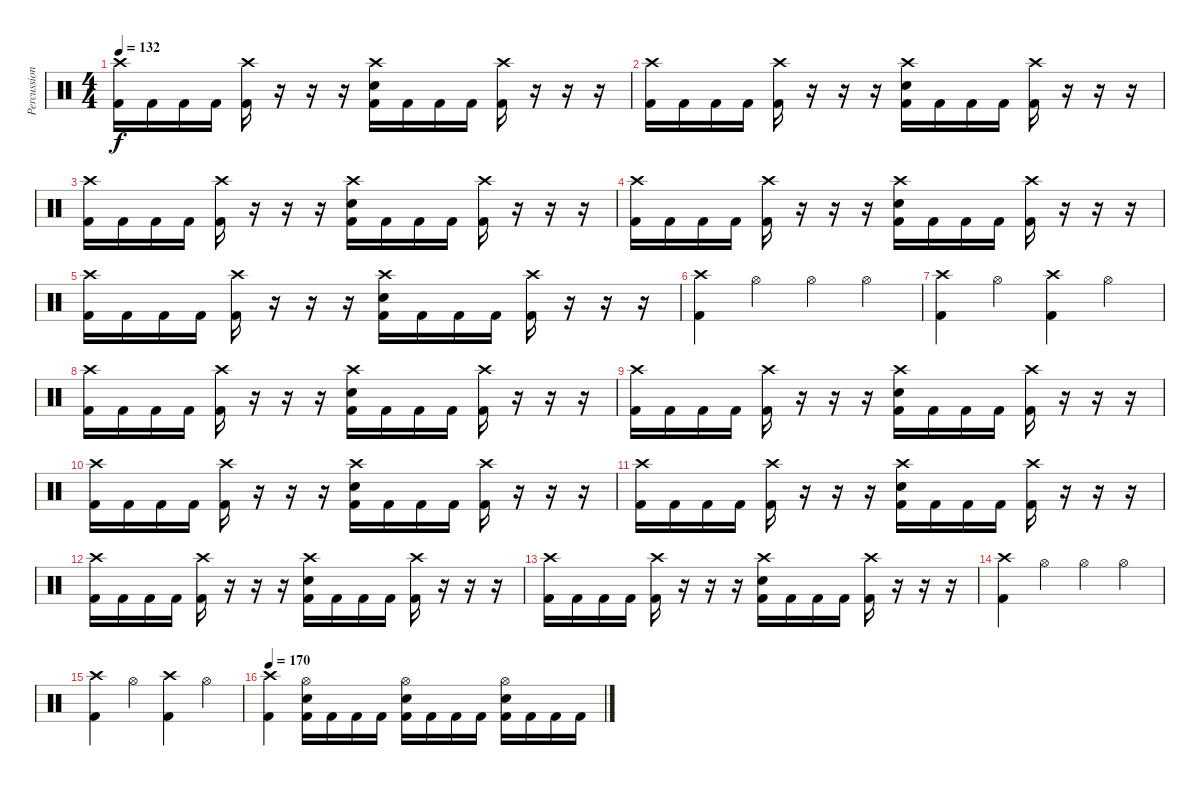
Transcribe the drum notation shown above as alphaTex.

\track ("Percussion" "Percussion") {instrument percussion}
\staff {score}
\articulation defaults
\ts (4 4)
\tempo 132
\clef neutral
\ks c
("Crash high (hit)" "Kick (hit) 2").16{dy f} "Kick (hit) 2".16 "Kick (hit) 2".16 "Kick (hit) 2".16 ("Crash high (hit)" "Kick (hit) 2").16 r.16 r.16 r.16 ("Crash high (hit)" "Electric Snare (hit)" "Kick (hit) 2").16 "Kick (hit) 2".16 "Kick (hit) 2".16 "Kick (hit) 2".16 ("Crash high (hit)" "Kick (hit) 2").16 r.16 r.16 r.16 |
("Crash high (hit)" "Kick (hit) 2").16 "Kick (hit) 2".16 "Kick (hit) 2".16 "Kick (hit) 2".16 ("Crash high (hit)" "Kick (hit) 2").16 r.16 r.16 r.16 ("Crash high (hit)" "Electric Snare (hit)" "Kick (hit) 2").16 "Kick (hit) 2".16 "Kick (hit) 2".16 "Kick (hit) 2".16 ("Crash high (hit)" "Kick (hit) 2").16 r.16 r.16 r.16 |
("Crash high (hit)" "Kick (hit) 2").16 "Kick (hit) 2".16 "Kick (hit) 2".16 "Kick (hit) 2".16 ("Crash high (hit)" "Kick (hit) 2").16 r.16 r.16 r.16 ("Crash high (hit)" "Electric Snare (hit)" "Kick (hit) 2").16 "Kick (hit) 2".16 "Kick (hit) 2".16 "Kick (hit) 2".16 ("Crash high (hit)" "Kick (hit) 2").16 r.16 r.16 r.16 |
("Crash high (hit)" "Kick (hit) 2").16 "Kick (hit) 2".16 "Kick (hit) 2".16 "Kick (hit) 2".16 ("Crash high (hit)" "Kick (hit) 2").16 r.16 r.16 r.16 ("Crash high (hit)" "Electric Snare (hit)" "Kick (hit) 2").16 "Kick (hit) 2".16 "Kick (hit) 2".16 "Kick (hit) 2".16 ("Crash high (hit)" "Kick (hit) 2").16 r.16 r.16 r.16 |
("Crash high (hit)" "Kick (hit) 2").16 "Kick (hit) 2".16 "Kick (hit) 2".16 "Kick (hit) 2".16 ("Crash high (hit)" "Kick (hit) 2").16 r.16 r.16 r.16 ("Crash high (hit)" "Electric Snare (hit)" "Kick (hit) 2").16 "Kick (hit) 2".16 "Kick (hit) 2".16 "Kick (hit) 2".16 ("Crash high (hit)" "Kick (hit) 2").16 r.16 r.16 r.16 |
("Crash high (hit)" "Kick (hit) 2").4 "Hi-Hat (open)".4 "Hi-Hat (open)".4 "Hi-Hat (open)".4 |
("Crash high (hit)" "Kick (hit) 2").4 "Hi-Hat (open)".4 ("Crash high (hit)" "Kick (hit) 2").4 "Hi-Hat (open)".4 |
("Crash high (hit)" "Kick (hit) 2").16 "Kick (hit) 2".16 "Kick (hit) 2".16 "Kick (hit) 2".16 ("Crash high (hit)" "Kick (hit) 2").16 r.16 r.16 r.16 ("Crash high (hit)" "Electric Snare (hit)" "Kick (hit) 2").16 "Kick (hit) 2".16 "Kick (hit) 2".16 "Kick (hit) 2".16 ("Crash high (hit)" "Kick (hit) 2").16 r.16 r.16 r.16 |
("Crash high (hit)" "Kick (hit) 2").16 "Kick (hit) 2".16 "Kick (hit) 2".16 "Kick (hit) 2".16 ("Crash high (hit)" "Kick (hit) 2").16 r.16 r.16 r.16 ("Crash high (hit)" "Electric Snare (hit)" "Kick (hit) 2").16 "Kick (hit) 2".16 "Kick (hit) 2".16 "Kick (hit) 2".16 ("Crash high (hit)" "Kick (hit) 2").16 r.16 r.16 r.16 |
("Crash high (hit)" "Kick (hit) 2").16 "Kick (hit) 2".16 "Kick (hit) 2".16 "Kick (hit) 2".16 ("Crash high (hit)" "Kick (hit) 2").16 r.16 r.16 r.16 ("Crash high (hit)" "Electric Snare (hit)" "Kick (hit) 2").16 "Kick (hit) 2".16 "Kick (hit) 2".16 "Kick (hit) 2".16 ("Crash high (hit)" "Kick (hit) 2").16 r.16 r.16 r.16 |
("Crash high (hit)" "Kick (hit) 2").16 "Kick (hit) 2".16 "Kick (hit) 2".16 "Kick (hit) 2".16 ("Crash high (hit)" "Kick (hit) 2").16 r.16 r.16 r.16 ("Crash high (hit)" "Electric Snare (hit)" "Kick (hit) 2").16 "Kick (hit) 2".16 "Kick (hit) 2".16 "Kick (hit) 2".16 ("Crash high (hit)" "Kick (hit) 2").16 r.16 r.16 r.16 |
("Crash high (hit)" "Kick (hit) 2").16 "Kick (hit) 2".16 "Kick (hit) 2".16 "Kick (hit) 2".16 ("Crash high (hit)" "Kick (hit) 2").16 r.16 r.16 r.16 ("Crash high (hit)" "Electric Snare (hit)" "Kick (hit) 2").16 "Kick (hit) 2".16 "Kick (hit) 2".16 "Kick (hit) 2".16 ("Crash high (hit)" "Kick (hit) 2").16 r.16 r.16 r.16 |
("Crash high (hit)" "Kick (hit) 2").16 "Kick (hit) 2".16 "Kick (hit) 2".16 "Kick (hit) 2".16 ("Crash high (hit)" "Kick (hit) 2").16 r.16 r.16 r.16 ("Crash high (hit)" "Electric Snare (hit)" "Kick (hit) 2").16 "Kick (hit) 2".16 "Kick (hit) 2".16 "Kick (hit) 2".16 ("Crash high (hit)" "Kick (hit) 2").16 r.16 r.16 r.16 |
("Crash high (hit)" "Kick (hit) 2").4 "Hi-Hat (open)".4 "Hi-Hat (open)".4 "Hi-Hat (open)".4 |
("Crash high (hit)" "Kick (hit) 2").4 "Hi-Hat (open)".4 ("Crash high (hit)" "Kick (hit) 2").4 "Hi-Hat (open)".4 |
\tempo 170
("Crash high (hit)" "Kick (hit) 2").4 ("Hi-Hat (open)" "Electric Snare (hit)" "Kick (hit) 2").16 "Kick (hit) 2".16 "Kick (hit) 2".16 "Kick (hit) 2".16 ("Hi-Hat (open)" "Electric Snare (hit)" "Kick (hit) 2").16 "Kick (hit) 2".16 "Kick (hit) 2".16 "Kick (hit) 2".16 ("Hi-Hat (open)" "Electric Snare (hit)" "Kick (hit) 2").16 "Kick (hit) 2".16 "Kick (hit) 2".16 "Kick (hit) 2".16
